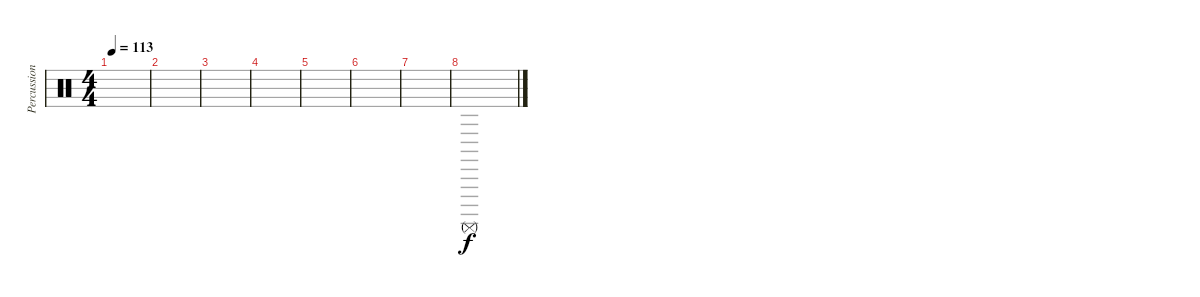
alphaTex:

\track ("Percussion" "Percussion") {instrument percussion}
\staff {score}
\articulation defaults
\ts (4 4)
\tempo 113
\clef neutral
\ks c
|
|
|
|
|
|
|
"Surdo (mute)".1
